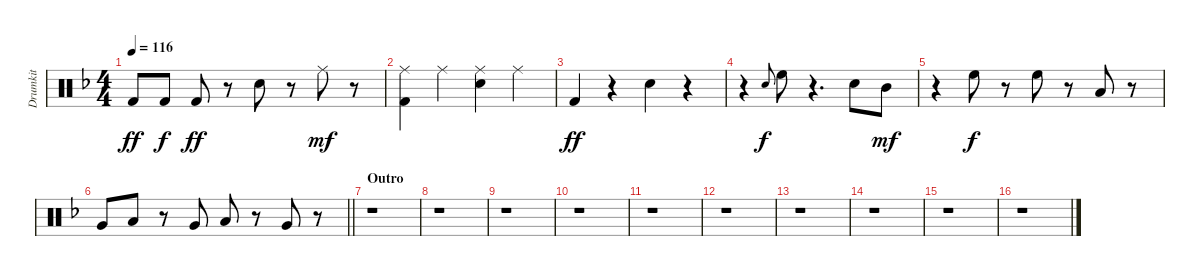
\track ("Drumkit" "Drumkit") {instrument percussion}
\staff {score}
\articulation defaults
\ts (4 4)
\tempo 116
\clef neutral
\ks dminor "Kick (hit) 2".8{dy ff} "Kick (hit) 2".8{dy f} "Kick (hit) 2".8{dy ff}
r.8 "Snare (hit) 2".8 r.8 "Ride (middle)".8{dy mf} r.8 |
("Ride (middle)" "Kick (hit) 2").4 "Ride (middle)".4 ("Ride (middle)" "Snare (hit) 2").4 "Ride (middle)".4 |
"Kick (hit) 2".4{dy ff} r.4 "Snare (hit) 2".4 r.4 |
r.4 "Snare (hit)".8{gr onbeat dy f} "High Floor Tom (hit)".8 r.4{d} "Snare (hit) 2".8 "Mid Tom (hit)".8{dy mf} |
r.4 "High Floor Tom (hit)".8{dy f} r.8 "High Floor Tom (hit)".8 r.8 "Low Tom (hit)".8 r.8 |
\barLineRight lightlight "Very Low Tom (hit)".8 "Low Tom (hit)".8
r.8 "Very Low Tom (hit)".8 "Low Tom (hit)".8 r.8 "Very Low Tom (hit)".8 r.8 |
\section ("" "Outro")
r.1 |
r.1 |
r.1 |
r.1 |
r.1 |
r.1 |
r.1 |
r.1 |
r.1 |
r.1
